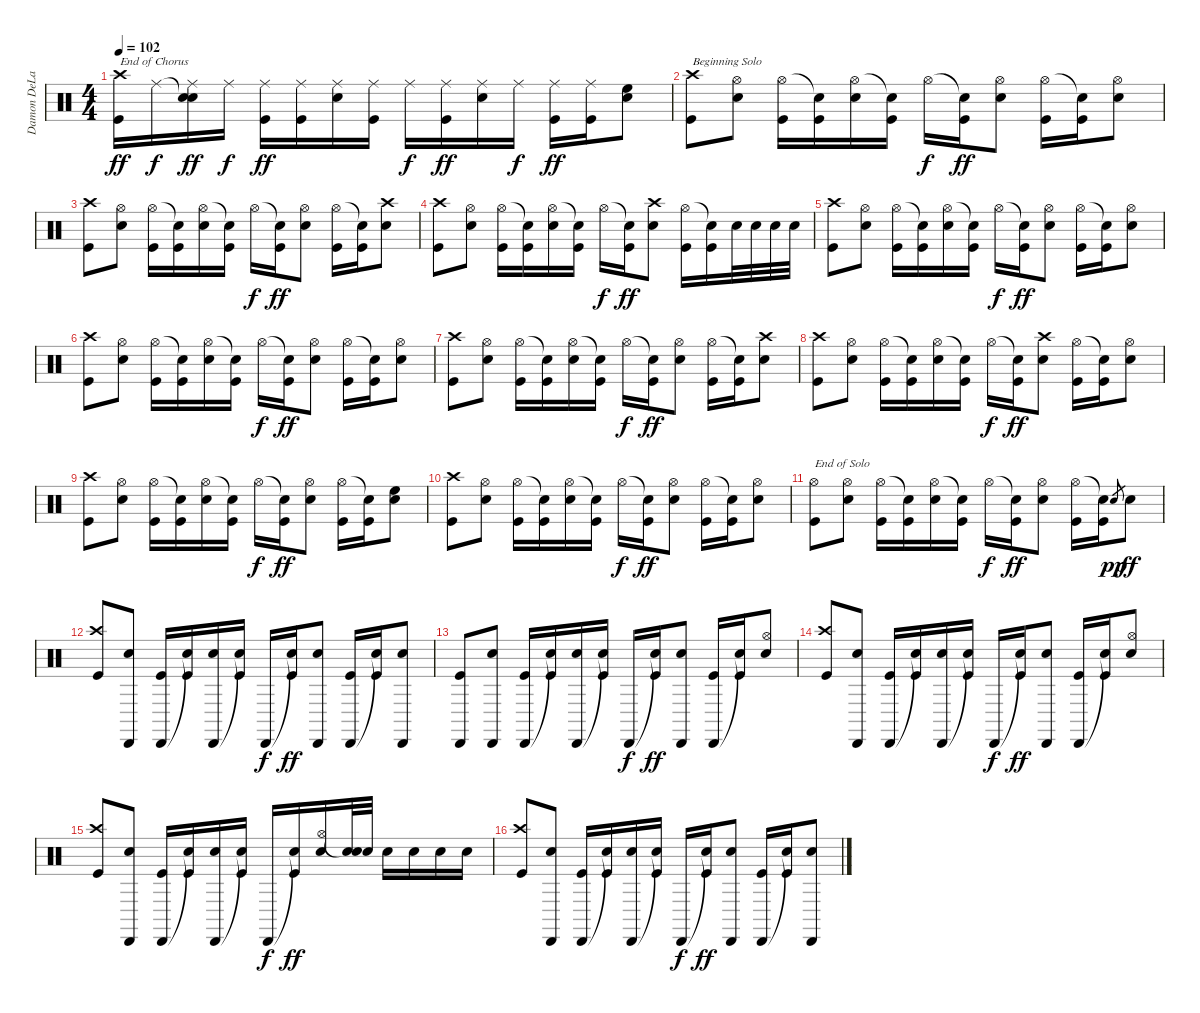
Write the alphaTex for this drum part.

\track ("Damon DeLapaz - Drums" "Damon DeLa") {instrument percussion}
\staff {score}
\articulation defaults
\ts (4 4)
\tempo 102
\clef neutral
\ks c
("Crash high (hit)" "Kick (hit)").16{txt "End of Chorus" dy ff} "Ride (middle)".16{dy f} ("Snare (hit)"{t} "Ride (middle)" "Snare (hit) 2").16{dy ff} "Ride (middle)".16{dy f} ("Ride (middle)" "Kick (hit)").16{dy ff} ("Ride (middle)" "Kick (hit)").16 ("Ride (middle)" "Snare (hit) 2").16 ("Ride (middle)" "Kick (hit)").16 "Ride (middle)".16{dy f} ("Ride (middle)" "Kick (hit)").16{dy ff} ("Ride (middle)" "Snare (hit) 2").16 "Ride (middle)".16{dy f} ("Ride (middle)" "Kick (hit)").16{dy ff} ("Ride (middle)" "Kick (hit)").16 ("High Floor Tom (hit)" "Snare (hit) 2").8 |
("Crash high (hit)" "Kick (hit)").8{txt "Beginning Solo" volume 12} ("Hi-Hat (open)" "Snare (hit) 2").8 ("Hi-Hat (open)" "Kick (hit)").16 ("Snare (hit)"{t} "Kick (hit)").16 ("Hi-Hat (open)" "Snare (hit) 2").16 ("Snare (hit)"{t} "Kick (hit)").16 "Hi-Hat (open)".16{dy f} ("Snare (hit)"{t} "Kick (hit)").16{dy ff} ("Hi-Hat (open)" "Snare (hit) 2").8 ("Hi-Hat (open)" "Kick (hit)").16 ("Snare (hit)"{t} "Kick (hit)").16 ("Hi-Hat (open)" "Snare (hit) 2").8 |
("Crash high (hit)" "Kick (hit)").8 ("Hi-Hat (open)" "Snare (hit) 2").8 ("Hi-Hat (open)" "Kick (hit)").16 ("Snare (hit)"{t} "Kick (hit)").16 ("Hi-Hat (open)" "Snare (hit) 2").16 ("Snare (hit)"{t} "Kick (hit)").16 "Hi-Hat (open)".16{dy f} ("Snare (hit)"{t} "Kick (hit)").16{dy ff} ("Hi-Hat (open)" "Snare (hit) 2").8 ("Hi-Hat (open)" "Kick (hit)").16 ("Snare (hit)"{t} "Kick (hit)").16 ("Crash high (hit)" "Snare (hit) 2").8 |
("Crash high (hit)" "Kick (hit)").8 ("Hi-Hat (open)" "Snare (hit) 2").8 ("Hi-Hat (open)" "Kick (hit)").16 ("Snare (hit)"{t} "Kick (hit)").16 ("Hi-Hat (open)" "Snare (hit) 2").16 ("Snare (hit)"{t} "Kick (hit)").16 "Hi-Hat (open)".16{dy f} ("Snare (hit)"{t} "Kick (hit)").16{dy ff} ("Crash high (hit)" "Snare (hit) 2").8 ("Hi-Hat (open)" "Kick (hit)").16 ("Snare (hit)"{t} "Kick (hit)").16 "Snare (hit) 2".32 "Snare (hit) 2".32 "Snare (hit) 2".32 "Snare (hit) 2".32 |
("Crash high (hit)" "Kick (hit)").8 ("Hi-Hat (open)" "Snare (hit) 2").8 ("Hi-Hat (open)" "Kick (hit)").16 ("Snare (hit)"{t} "Kick (hit)").16 ("Hi-Hat (open)" "Snare (hit) 2").16 ("Snare (hit)"{t} "Kick (hit)").16 "Hi-Hat (open)".16{dy f} ("Snare (hit)"{t} "Kick (hit)").16{dy ff} ("Hi-Hat (open)" "Snare (hit) 2").8 ("Hi-Hat (open)" "Kick (hit)").16 ("Snare (hit)"{t} "Kick (hit)").16 ("Hi-Hat (open)" "Snare (hit) 2").8 |
("Crash high (hit)" "Kick (hit)").8 ("Hi-Hat (open)" "Snare (hit) 2").8 ("Hi-Hat (open)" "Kick (hit)").16 ("Snare (hit)"{t} "Kick (hit)").16 ("Hi-Hat (open)" "Snare (hit) 2").16 ("Snare (hit)"{t} "Kick (hit)").16 "Hi-Hat (open)".16{dy f} ("Snare (hit)"{t} "Kick (hit)").16{dy ff} ("Hi-Hat (open)" "Snare (hit) 2").8 ("Hi-Hat (open)" "Kick (hit)").16 ("Snare (hit)"{t} "Kick (hit)").16 ("Hi-Hat (open)" "Snare (hit) 2").8 |
("Crash high (hit)" "Kick (hit)").8 ("Hi-Hat (open)" "Snare (hit) 2").8 ("Hi-Hat (open)" "Kick (hit)").16 ("Snare (hit)"{t} "Kick (hit)").16 ("Hi-Hat (open)" "Snare (hit) 2").16 ("Snare (hit)"{t} "Kick (hit)").16 "Hi-Hat (open)".16{dy f} ("Snare (hit)"{t} "Kick (hit)").16{dy ff} ("Hi-Hat (open)" "Snare (hit) 2").8 ("Hi-Hat (open)" "Kick (hit)").16 ("Snare (hit)"{t} "Kick (hit)").16 ("Crash high (hit)" "Snare (hit) 2").8 |
("Crash high (hit)" "Kick (hit)").8{volume 13} ("Hi-Hat (open)" "Snare (hit) 2").8 ("Hi-Hat (open)" "Kick (hit)").16 ("Snare (hit)"{t} "Kick (hit)").16 ("Hi-Hat (open)" "Snare (hit) 2").16 ("Snare (hit)"{t} "Kick (hit)").16 "Hi-Hat (open)".16{dy f} ("Snare (hit)"{t} "Kick (hit)").16{dy ff} ("Crash high (hit)" "Snare (hit) 2").8 ("Hi-Hat (open)" "Kick (hit)").16 ("Snare (hit)"{t} "Kick (hit)").16 ("Hi-Hat (open)" "Snare (hit) 2").8 |
("Crash high (hit)" "Kick (hit)").8 ("Hi-Hat (open)" "Snare (hit) 2").8 ("Hi-Hat (open)" "Kick (hit)").16 ("Snare (hit)"{t} "Kick (hit)").16 ("Hi-Hat (open)" "Snare (hit) 2").16 ("Snare (hit)"{t} "Kick (hit)").16 "Hi-Hat (open)".16{dy f} ("Snare (hit)"{t} "Kick (hit)").16{dy ff} ("Hi-Hat (open)" "Snare (hit) 2").8 ("Hi-Hat (open)" "Kick (hit)").16 ("Snare (hit)"{t} "Kick (hit)").16 ("Snare (hit) 2" "High Floor Tom (hit)").8 |
("Crash high (hit)" "Kick (hit)").8 ("Hi-Hat (open)" "Snare (hit) 2").8 ("Hi-Hat (open)" "Kick (hit)").16 ("Snare (hit)"{t} "Kick (hit)").16 ("Hi-Hat (open)" "Snare (hit) 2").16 ("Snare (hit)"{t} "Kick (hit)").16 "Hi-Hat (open)".16{dy f} ("Snare (hit)"{t} "Kick (hit)").16{dy ff} ("Hi-Hat (open)" "Snare (hit) 2").8 ("Hi-Hat (open)" "Kick (hit)").16 ("Snare (hit)"{t} "Kick (hit)").16 ("Hi-Hat (open)" "Snare (hit) 2").8 |
("Hi-Hat (open)" "Kick (hit)").8{txt "End of Solo"} ("Hi-Hat (open)" "Snare (hit) 2").8 ("Hi-Hat (open)" "Kick (hit)").16 ("Snare (hit)"{t} "Kick (hit)").16 ("Hi-Hat (open)" "Snare (hit) 2").16 ("Snare (hit)"{t} "Kick (hit)").16 "Hi-Hat (open)".16{dy f} ("Snare (hit)"{t} "Kick (hit)").16{dy ff} ("Hi-Hat (open)" "Snare (hit) 2").8 ("Hi-Hat (open)" "Kick (hit)").16 ("Snare (hit)"{t} "Kick (hit)").16 "Snare (hit) 2".8{gr dy pp} "Snare (hit) 2".8{dy ff} |
("Crash high (hit)" "Kick (hit)").8 ("Cabasa (hit)" "Snare (hit) 2").8 ("Cabasa (hit)" "Kick (hit)").16 ("Snare (hit)"{t} "Kick (hit)").16 ("Cabasa (hit)" "Snare (hit) 2").16 ("Snare (hit)"{t} "Kick (hit)").16 "Cabasa (hit)".16{dy f} ("Snare (hit)"{t} "Kick (hit)").16{dy ff} ("Cabasa (hit)" "Snare (hit) 2").8 ("Cabasa (hit)" "Kick (hit)").16 ("Snare (hit)"{t} "Kick (hit)").16 ("Cabasa (hit)" "Snare (hit) 2").8 |
("Cabasa (hit)" "Kick (hit)").8 ("Cabasa (hit)" "Snare (hit) 2").8 ("Cabasa (hit)" "Kick (hit)").16 ("Snare (hit)"{t} "Kick (hit)").16 ("Cabasa (hit)" "Snare (hit) 2").16 ("Snare (hit)"{t} "Kick (hit)").16 "Cabasa (hit)".16{dy f} ("Snare (hit)"{t} "Kick (hit)").16{dy ff} ("Cabasa (hit)" "Snare (hit) 2").8 ("Cabasa (hit)" "Kick (hit)").16 ("Snare (hit)"{t} "Kick (hit)").16 ("Hi-Hat (open)" "Snare (hit) 2").8 |
("Crash high (hit)" "Kick (hit)").8 ("Cabasa (hit)" "Snare (hit) 2").8 ("Cabasa (hit)" "Kick (hit)").16 ("Snare (hit)"{t} "Kick (hit)").16 ("Cabasa (hit)" "Snare (hit) 2").16 ("Snare (hit)"{t} "Kick (hit)").16 "Cabasa (hit)".16{dy f} ("Snare (hit)"{t} "Kick (hit)").16{dy ff} ("Cabasa (hit)" "Snare (hit) 2").8 ("Cabasa (hit)" "Kick (hit)").16 ("Snare (hit)"{t} "Kick (hit)").16 ("Hi-Hat (open)" "Snare (hit) 2").8 |
("Crash high (hit)" "Kick (hit)").8 ("Cabasa (hit)" "Snare (hit) 2").8 ("Cabasa (hit)" "Kick (hit)").16 ("Snare (hit)"{t} "Kick (hit)").16 ("Cabasa (hit)" "Snare (hit) 2").16 ("Snare (hit)"{t} "Kick (hit)").16 "Cabasa (hit)".16{dy f} ("Snare (hit)"{t} "Kick (hit)").16{dy ff} ("Hi-Hat (open)" "Snare (hit) 2").16 ("Snare (hit)"{t} "Snare (hit) 2").32 "Snare (hit) 2".32 "Snare (hit) 2".16 "Snare (hit) 2".16 "Snare (hit) 2".16 "Snare (hit) 2".16 |
("Crash high (hit)" "Kick (hit)").8 ("Cabasa (hit)" "Snare (hit) 2").8 ("Cabasa (hit)" "Kick (hit)").16 ("Snare (hit)"{t} "Kick (hit)").16 ("Cabasa (hit)" "Snare (hit) 2").16 ("Snare (hit)"{t} "Kick (hit)").16 "Cabasa (hit)".16{dy f} ("Snare (hit)"{t} "Kick (hit)").16{dy ff} ("Cabasa (hit)" "Snare (hit) 2").8 ("Cabasa (hit)" "Kick (hit)").16 ("Snare (hit)"{t} "Kick (hit)").16 ("Cabasa (hit)" "Snare (hit) 2").8
